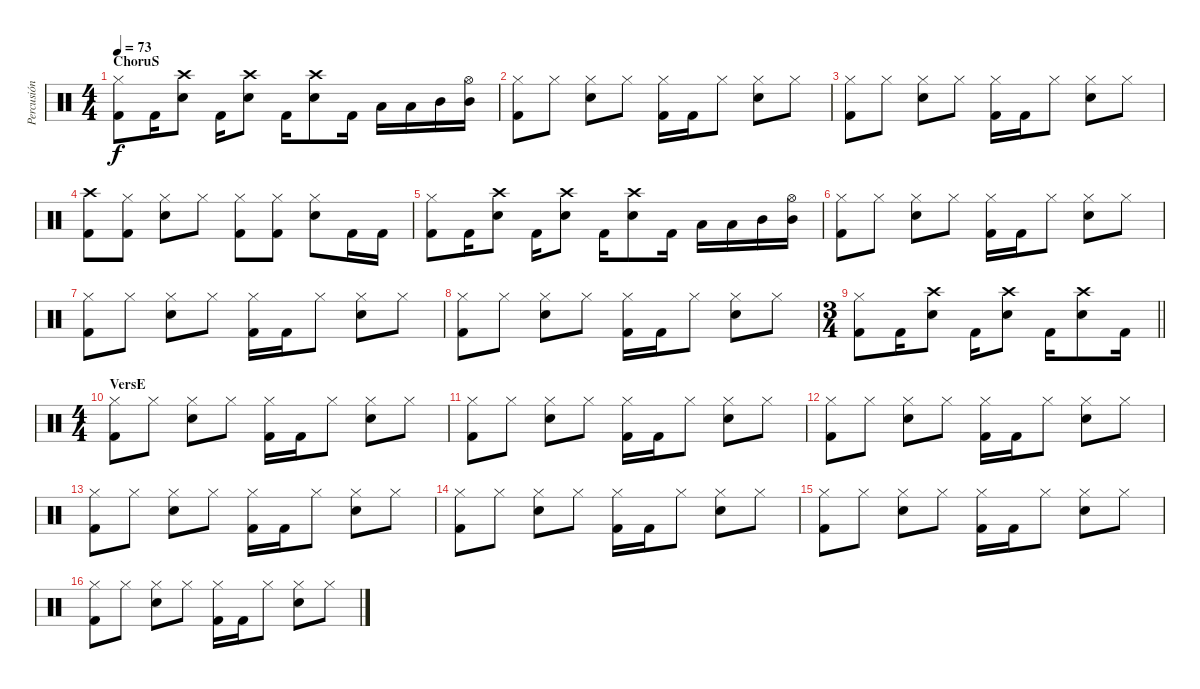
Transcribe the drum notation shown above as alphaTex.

\track ("Percusión" "Percusión") {instrument percussion}
\staff {score}
\articulation defaults
\ts (4 4)
\section ("" "ChoruS")
\tempo 73
\clef neutral
\ks c
("Hi-Hat (closed)" "Kick (hit) 2").8{dy f} "Kick (hit) 2".16 ("Crash high (hit)" "Electric Snare (hit)").8 "Kick (hit) 2".16 ("Crash high (hit)" "Electric Snare (hit)").8 "Kick (hit) 2".16 ("Crash high (hit)" "Electric Snare (hit)").8 "Kick (hit) 2".16 "Low Floor Tom (hit)".16 "Low Floor Tom (hit)".16 "Mid Tom (hit)".16 ("Hi-Hat (open)" "Mid Tom (hit)").16 |
("Hi-Hat (closed)" "Kick (hit) 2").8 "Hi-Hat (closed)".8 ("Hi-Hat (closed)" "Electric Snare (hit)").8 "Hi-Hat (closed)".8 ("Hi-Hat (closed)" "Kick (hit) 2").16 "Kick (hit) 2".16 "Hi-Hat (closed)".8 ("Hi-Hat (closed)" "Electric Snare (hit)").8 "Hi-Hat (closed)".8 |
("Hi-Hat (closed)" "Kick (hit) 2").8 "Hi-Hat (closed)".8 ("Hi-Hat (closed)" "Electric Snare (hit)").8 "Hi-Hat (closed)".8 ("Hi-Hat (closed)" "Kick (hit) 2").16 "Kick (hit) 2".16 "Hi-Hat (closed)".8 ("Hi-Hat (closed)" "Electric Snare (hit)").8 "Hi-Hat (closed)".8 |
("Crash high (hit)" "Kick (hit) 2").8 ("Hi-Hat (closed)" "Kick (hit) 2").8 ("Hi-Hat (closed)" "Electric Snare (hit)").8 "Hi-Hat (closed)".8 ("Hi-Hat (closed)" "Kick (hit) 2").8 ("Hi-Hat (closed)" "Kick (hit) 2").8 ("Hi-Hat (closed)" "Electric Snare (hit)").8 "Kick (hit) 2".16 "Kick (hit) 2".16 |
("Hi-Hat (closed)" "Kick (hit) 2").8 "Kick (hit) 2".16 ("Crash high (hit)" "Electric Snare (hit)").8 "Kick (hit) 2".16 ("Crash high (hit)" "Electric Snare (hit)").8 "Kick (hit) 2".16 ("Crash high (hit)" "Electric Snare (hit)").8 "Kick (hit) 2".16 "Low Floor Tom (hit)".16 "Low Floor Tom (hit)".16 "Mid Tom (hit)".16 ("Hi-Hat (open)" "Mid Tom (hit)").16 |
("Hi-Hat (closed)" "Kick (hit) 2").8 "Hi-Hat (closed)".8 ("Hi-Hat (closed)" "Electric Snare (hit)").8 "Hi-Hat (closed)".8 ("Hi-Hat (closed)" "Kick (hit) 2").16 "Kick (hit) 2".16 "Hi-Hat (closed)".8 ("Hi-Hat (closed)" "Electric Snare (hit)").8 "Hi-Hat (closed)".8 |
("Hi-Hat (closed)" "Kick (hit) 2").8 "Hi-Hat (closed)".8 ("Hi-Hat (closed)" "Electric Snare (hit)").8 "Hi-Hat (closed)".8 ("Hi-Hat (closed)" "Kick (hit) 2").16 "Kick (hit) 2".16 "Hi-Hat (closed)".8 ("Hi-Hat (closed)" "Electric Snare (hit)").8 "Hi-Hat (closed)".8 |
("Hi-Hat (closed)" "Kick (hit) 2").8 "Hi-Hat (closed)".8 ("Hi-Hat (closed)" "Electric Snare (hit)").8 "Hi-Hat (closed)".8 ("Hi-Hat (closed)" "Kick (hit) 2").16 "Kick (hit) 2".16 "Hi-Hat (closed)".8 ("Hi-Hat (closed)" "Electric Snare (hit)").8 "Hi-Hat (closed)".8 |
\ts (3 4)
\barLineRight lightlight
("Hi-Hat (closed)" "Kick (hit) 2").8 "Kick (hit) 2".16 ("Crash high (hit)" "Electric Snare (hit)").8 "Kick (hit) 2".16 ("Crash high (hit)" "Electric Snare (hit)").8 "Kick (hit) 2".16 ("Crash high (hit)" "Electric Snare (hit)").8 "Kick (hit) 2".16 |
\ts (4 4)
\section ("" "VersE")
("Hi-Hat (closed)" "Kick (hit) 2").8 "Hi-Hat (closed)".8 ("Hi-Hat (closed)" "Electric Snare (hit)").8 "Hi-Hat (closed)".8 ("Hi-Hat (closed)" "Kick (hit) 2").16 "Kick (hit) 2".16 "Hi-Hat (closed)".8 ("Hi-Hat (closed)" "Electric Snare (hit)").8 "Hi-Hat (closed)".8 |
("Hi-Hat (closed)" "Kick (hit) 2").8 "Hi-Hat (closed)".8 ("Hi-Hat (closed)" "Electric Snare (hit)").8 "Hi-Hat (closed)".8 ("Hi-Hat (closed)" "Kick (hit) 2").16 "Kick (hit) 2".16 "Hi-Hat (closed)".8 ("Hi-Hat (closed)" "Electric Snare (hit)").8 "Hi-Hat (closed)".8 |
("Hi-Hat (closed)" "Kick (hit) 2").8 "Hi-Hat (closed)".8 ("Hi-Hat (closed)" "Electric Snare (hit)").8 "Hi-Hat (closed)".8 ("Hi-Hat (closed)" "Kick (hit) 2").16 "Kick (hit) 2".16 "Hi-Hat (closed)".8 ("Hi-Hat (closed)" "Electric Snare (hit)").8 "Hi-Hat (closed)".8 |
("Hi-Hat (closed)" "Kick (hit) 2").8 "Hi-Hat (closed)".8 ("Hi-Hat (closed)" "Electric Snare (hit)").8 "Hi-Hat (closed)".8 ("Hi-Hat (closed)" "Kick (hit) 2").16 "Kick (hit) 2".16 "Hi-Hat (closed)".8 ("Hi-Hat (closed)" "Electric Snare (hit)").8 "Hi-Hat (closed)".8 |
("Hi-Hat (closed)" "Kick (hit) 2").8 "Hi-Hat (closed)".8 ("Hi-Hat (closed)" "Electric Snare (hit)").8 "Hi-Hat (closed)".8 ("Hi-Hat (closed)" "Kick (hit) 2").16 "Kick (hit) 2".16 "Hi-Hat (closed)".8 ("Hi-Hat (closed)" "Electric Snare (hit)").8 "Hi-Hat (closed)".8 |
("Hi-Hat (closed)" "Kick (hit) 2").8 "Hi-Hat (closed)".8 ("Hi-Hat (closed)" "Electric Snare (hit)").8 "Hi-Hat (closed)".8 ("Hi-Hat (closed)" "Kick (hit) 2").16 "Kick (hit) 2".16 "Hi-Hat (closed)".8 ("Hi-Hat (closed)" "Electric Snare (hit)").8 "Hi-Hat (closed)".8 |
("Hi-Hat (closed)" "Kick (hit) 2").8 "Hi-Hat (closed)".8 ("Hi-Hat (closed)" "Electric Snare (hit)").8 "Hi-Hat (closed)".8 ("Hi-Hat (closed)" "Kick (hit) 2").16 "Kick (hit) 2".16 "Hi-Hat (closed)".8 ("Hi-Hat (closed)" "Electric Snare (hit)").8 "Hi-Hat (closed)".8
